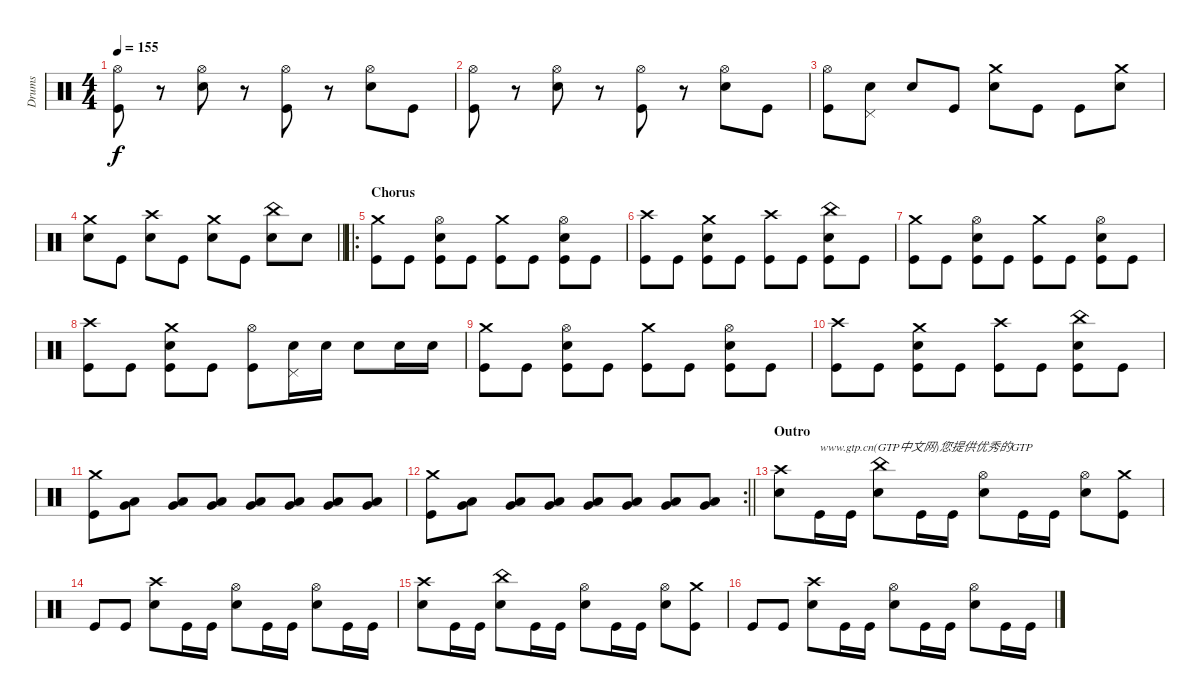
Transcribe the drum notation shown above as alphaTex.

\track ("Drums" "Drums") {instrument percussion}
\staff {score}
\articulation defaults
\ts (4 4)
\tempo 155
\clef neutral
\ks c
("Hi-Hat (open)" "Kick (hit)").8{dy f} r.8 ("Hi-Hat (open)" "Electric Snare (hit)").8 r.8 ("Hi-Hat (open)" "Kick (hit)").8 r.8 ("Hi-Hat (open)" "Electric Snare (hit)").8 "Kick (hit)".8 |
("Hi-Hat (open)" "Kick (hit)").8 r.8 ("Hi-Hat (open)" "Electric Snare (hit)").8 r.8 ("Hi-Hat (open)" "Kick (hit)").8 r.8 ("Hi-Hat (open)" "Electric Snare (hit)").8 "Kick (hit)".8 |
("Hi-Hat (open)" "Kick (hit)").8 ("Pedal Hi-Hat (hit)" "Electric Snare (hit)").8 "Electric Snare (hit)".8 "Kick (hit)".8 ("Crash medium (hit)" "Electric Snare (hit)").8 "Kick (hit)".8 "Kick (hit)".8 ("Crash medium (hit)" "Electric Snare (hit)").8 |
\barLineRight lightlight
("Crash medium (hit)" "Electric Snare (hit)").8 "Kick (hit)".8 ("Crash high (hit)" "Electric Snare (hit)").8 "Kick (hit)".8 ("Crash medium (hit)" "Electric Snare (hit)").8 "Kick (hit)".8 ("China (hit)" "Electric Snare (hit)").8 "Electric Snare (hit)".8 |
\ro
\section ("" "Chorus")
("Crash medium (hit)" "Kick (hit)").8 "Kick (hit)".8 ("Hi-Hat (open)" "Electric Snare (hit)" "Kick (hit)").8 "Kick (hit)".8 ("Crash medium (hit)" "Kick (hit)").8 "Kick (hit)".8 ("Hi-Hat (open)" "Electric Snare (hit)" "Kick (hit)").8 "Kick (hit)".8 |
("Crash high (hit)" "Kick (hit)").8 "Kick (hit)".8 ("Crash medium (hit)" "Electric Snare (hit)" "Kick (hit)").8 "Kick (hit)".8 ("Crash high (hit)" "Kick (hit)").8 "Kick (hit)".8 ("China (hit)" "Electric Snare (hit)" "Kick (hit)").8 "Kick (hit)".8 |
("Crash medium (hit)" "Kick (hit)").8 "Kick (hit)".8 ("Hi-Hat (open)" "Electric Snare (hit)" "Kick (hit)").8 "Kick (hit)".8 ("Crash medium (hit)" "Kick (hit)").8 "Kick (hit)".8 ("Hi-Hat (open)" "Electric Snare (hit)" "Kick (hit)").8 "Kick (hit)".8 |
("Crash high (hit)" "Kick (hit)").8 "Kick (hit)".8 ("Crash medium (hit)" "Electric Snare (hit)" "Kick (hit)").8 "Kick (hit)".8 ("Hi-Hat (open)" "Kick (hit)").8 ("Pedal Hi-Hat (hit)" "Electric Snare (hit)").16 "Electric Snare (hit)".16 "Electric Snare (hit)".8 "Electric Snare (hit)".16 "Electric Snare (hit)".16 |
("Crash medium (hit)" "Kick (hit)").8 "Kick (hit)".8 ("Hi-Hat (open)" "Electric Snare (hit)" "Kick (hit)").8 "Kick (hit)".8 ("Crash medium (hit)" "Kick (hit)").8 "Kick (hit)".8 ("Hi-Hat (open)" "Electric Snare (hit)" "Kick (hit)").8 "Kick (hit)".8 |
("Crash high (hit)" "Kick (hit)").8 "Kick (hit)".8 ("Crash medium (hit)" "Electric Snare (hit)" "Kick (hit)").8 "Kick (hit)".8 ("Crash high (hit)" "Kick (hit)").8 "Kick (hit)".8 ("China (hit)" "Electric Snare (hit)" "Kick (hit)").8 "Kick (hit)".8 |
("Crash medium (hit)" "Kick (hit)").8 ("Low Tom (hit)" "Very Low Tom (hit)").8 ("Low Tom (hit)" "Very Low Tom (hit)").8 ("Low Tom (hit)" "Very Low Tom (hit)").8 ("Low Tom (hit)" "Very Low Tom (hit)").8 ("Low Tom (hit)" "Very Low Tom (hit)").8 ("Low Tom (hit)" "Very Low Tom (hit)").8 ("Low Tom (hit)" "Very Low Tom (hit)").8 |
\rc 2
\barLineRight lightlight
("Crash medium (hit)" "Kick (hit)").8 ("Low Tom (hit)" "Very Low Tom (hit)").8 ("Low Tom (hit)" "Very Low Tom (hit)").8 ("Low Tom (hit)" "Very Low Tom (hit)").8 ("Low Tom (hit)" "Very Low Tom (hit)").8 ("Low Tom (hit)" "Very Low Tom (hit)").8 ("Low Tom (hit)" "Very Low Tom (hit)").8 ("Low Tom (hit)" "Very Low Tom (hit)").8 |
\section ("" "Outro")
("Crash high (hit)" "Electric Snare (hit)").8 "Kick (hit)".16{txt "www.gtp.cn(GTP中文网)您提供优秀的GTP"} "Kick (hit)".16 ("China (hit)" "Electric Snare (hit)").8 "Kick (hit)".16 "Kick (hit)".16 ("Hi-Hat (open)" "Electric Snare (hit)").8 "Kick (hit)".16 "Kick (hit)".16 ("Hi-Hat (open)" "Electric Snare (hit)").8 ("Crash medium (hit)" "Kick (hit)").8 |
"Kick (hit)".8 "Kick (hit)".8 ("Crash high (hit)" "Electric Snare (hit)").8 "Kick (hit)".16 "Kick (hit)".16 ("Hi-Hat (open)" "Electric Snare (hit)").8 "Kick (hit)".16 "Kick (hit)".16 ("Hi-Hat (open)" "Electric Snare (hit)").8 "Kick (hit)".16 "Kick (hit)".16 |
("Crash high (hit)" "Electric Snare (hit)").8 "Kick (hit)".16 "Kick (hit)".16 ("China (hit)" "Electric Snare (hit)").8 "Kick (hit)".16 "Kick (hit)".16 ("Hi-Hat (open)" "Electric Snare (hit)").8 "Kick (hit)".16 "Kick (hit)".16 ("Hi-Hat (open)" "Electric Snare (hit)").8 ("Crash medium (hit)" "Kick (hit)").8 |
"Kick (hit)".8 "Kick (hit)".8 ("Crash high (hit)" "Electric Snare (hit)").8 "Kick (hit)".16 "Kick (hit)".16 ("Hi-Hat (open)" "Electric Snare (hit)").8 "Kick (hit)".16 "Kick (hit)".16 ("Hi-Hat (open)" "Electric Snare (hit)").8 "Kick (hit)".16 "Kick (hit)".16
